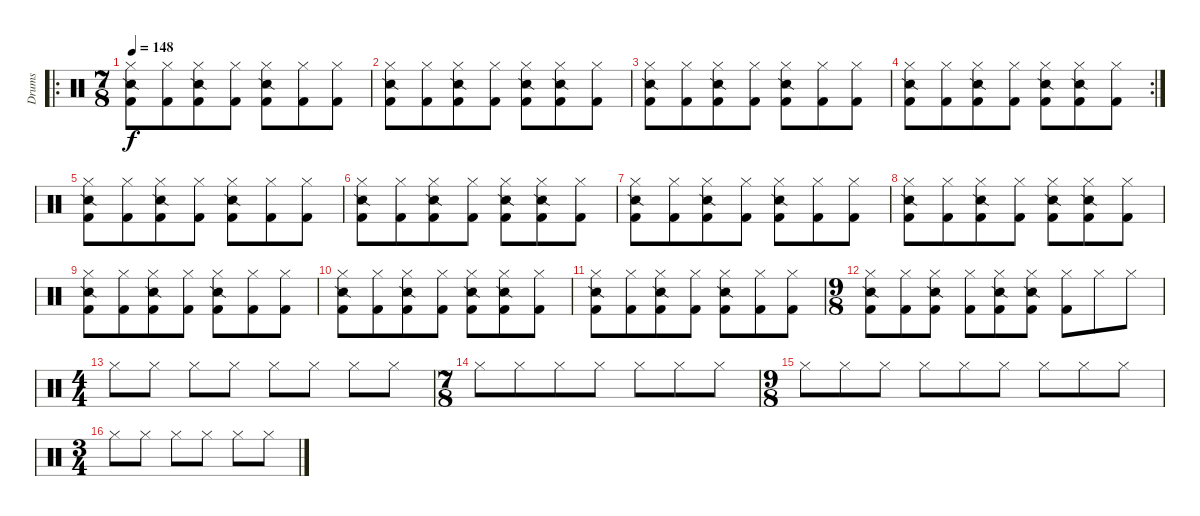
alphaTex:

\track ("Drums" "Drums") {instrument percussion}
\staff {score}
\articulation defaults
\ro
\ts (7 8)
\tempo 148
\clef neutral
\ks c
("Hi-Hat (closed)" "Snare (side stick) 2" "Kick (hit) 2").8{dy f} ("Hi-Hat (closed)" "Kick (hit) 2").8 ("Hi-Hat (closed)" "Snare (side stick) 2" "Kick (hit) 2").8 ("Hi-Hat (closed)" "Kick (hit) 2").8 ("Hi-Hat (closed)" "Snare (side stick) 2" "Kick (hit) 2").8 ("Hi-Hat (closed)" "Kick (hit) 2").8 ("Hi-Hat (closed)" "Kick (hit) 2").8 |
("Hi-Hat (closed)" "Snare (side stick) 2" "Kick (hit) 2").8 ("Hi-Hat (closed)" "Kick (hit) 2").8 ("Hi-Hat (closed)" "Snare (side stick) 2" "Kick (hit) 2").8 ("Hi-Hat (closed)" "Kick (hit) 2").8 ("Hi-Hat (closed)" "Snare (side stick) 2" "Kick (hit) 2").8 ("Hi-Hat (closed)" "Snare (side stick) 2" "Kick (hit) 2").8 ("Hi-Hat (closed)" "Kick (hit) 2").8 |
("Hi-Hat (closed)" "Snare (side stick) 2" "Kick (hit) 2").8 ("Hi-Hat (closed)" "Kick (hit) 2").8 ("Hi-Hat (closed)" "Snare (side stick) 2" "Kick (hit) 2").8 ("Hi-Hat (closed)" "Kick (hit) 2").8 ("Hi-Hat (closed)" "Snare (side stick) 2" "Kick (hit) 2").8 ("Hi-Hat (closed)" "Kick (hit) 2").8 ("Hi-Hat (closed)" "Kick (hit) 2").8 |
\rc 2
("Hi-Hat (closed)" "Snare (side stick) 2" "Kick (hit) 2").8 ("Hi-Hat (closed)" "Kick (hit) 2").8 ("Hi-Hat (closed)" "Snare (side stick) 2" "Kick (hit) 2").8 ("Hi-Hat (closed)" "Kick (hit) 2").8 ("Hi-Hat (closed)" "Snare (side stick) 2" "Kick (hit) 2").8 ("Hi-Hat (closed)" "Snare (side stick) 2" "Kick (hit) 2").8 ("Hi-Hat (closed)" "Kick (hit) 2").8 |
("Hi-Hat (closed)" "Snare (side stick) 2" "Kick (hit) 2").8 ("Hi-Hat (closed)" "Kick (hit) 2").8 ("Hi-Hat (closed)" "Snare (side stick) 2" "Kick (hit) 2").8 ("Hi-Hat (closed)" "Kick (hit) 2").8 ("Hi-Hat (closed)" "Snare (side stick) 2" "Kick (hit) 2").8 ("Hi-Hat (closed)" "Kick (hit) 2").8 ("Hi-Hat (closed)" "Kick (hit) 2").8 |
("Hi-Hat (closed)" "Snare (side stick) 2" "Kick (hit) 2").8 ("Hi-Hat (closed)" "Kick (hit) 2").8 ("Hi-Hat (closed)" "Snare (side stick) 2" "Kick (hit) 2").8 ("Hi-Hat (closed)" "Kick (hit) 2").8 ("Hi-Hat (closed)" "Snare (side stick) 2" "Kick (hit) 2").8 ("Hi-Hat (closed)" "Snare (side stick) 2" "Kick (hit) 2").8 ("Hi-Hat (closed)" "Kick (hit) 2").8 |
("Hi-Hat (closed)" "Snare (side stick) 2" "Kick (hit) 2").8 ("Hi-Hat (closed)" "Kick (hit) 2").8 ("Hi-Hat (closed)" "Snare (side stick) 2" "Kick (hit) 2").8 ("Hi-Hat (closed)" "Kick (hit) 2").8 ("Hi-Hat (closed)" "Snare (side stick) 2" "Kick (hit) 2").8 ("Hi-Hat (closed)" "Kick (hit) 2").8 ("Hi-Hat (closed)" "Kick (hit) 2").8 |
("Hi-Hat (closed)" "Snare (side stick) 2" "Kick (hit) 2").8 ("Hi-Hat (closed)" "Kick (hit) 2").8 ("Hi-Hat (closed)" "Snare (side stick) 2" "Kick (hit) 2").8 ("Hi-Hat (closed)" "Kick (hit) 2").8 ("Hi-Hat (closed)" "Snare (side stick) 2" "Kick (hit) 2").8 ("Hi-Hat (closed)" "Snare (side stick) 2" "Kick (hit) 2").8 ("Hi-Hat (closed)" "Kick (hit) 2").8 |
("Hi-Hat (closed)" "Snare (side stick) 2" "Kick (hit) 2").8 ("Hi-Hat (closed)" "Kick (hit) 2").8 ("Hi-Hat (closed)" "Snare (side stick) 2" "Kick (hit) 2").8 ("Hi-Hat (closed)" "Kick (hit) 2").8 ("Hi-Hat (closed)" "Snare (side stick) 2" "Kick (hit) 2").8 ("Hi-Hat (closed)" "Kick (hit) 2").8 ("Hi-Hat (closed)" "Kick (hit) 2").8 |
("Hi-Hat (closed)" "Snare (side stick) 2" "Kick (hit) 2").8 ("Hi-Hat (closed)" "Kick (hit) 2").8 ("Hi-Hat (closed)" "Snare (side stick) 2" "Kick (hit) 2").8 ("Hi-Hat (closed)" "Kick (hit) 2").8 ("Hi-Hat (closed)" "Snare (side stick) 2" "Kick (hit) 2").8 ("Hi-Hat (closed)" "Snare (side stick) 2" "Kick (hit) 2").8 ("Hi-Hat (closed)" "Kick (hit) 2").8 |
("Hi-Hat (closed)" "Snare (side stick) 2" "Kick (hit) 2").8 ("Hi-Hat (closed)" "Kick (hit) 2").8 ("Hi-Hat (closed)" "Snare (side stick) 2" "Kick (hit) 2").8 ("Hi-Hat (closed)" "Kick (hit) 2").8 ("Hi-Hat (closed)" "Snare (side stick) 2" "Kick (hit) 2").8 ("Hi-Hat (closed)" "Kick (hit) 2").8 ("Hi-Hat (closed)" "Kick (hit) 2").8 |
\ts (9 8)
("Hi-Hat (closed)" "Snare (side stick) 2" "Kick (hit) 2").8 ("Hi-Hat (closed)" "Kick (hit) 2").8 ("Hi-Hat (closed)" "Snare (side stick) 2" "Kick (hit) 2").8 ("Hi-Hat (closed)" "Kick (hit) 2").8 ("Hi-Hat (closed)" "Snare (side stick) 2" "Kick (hit) 2").8 ("Hi-Hat (closed)" "Snare (side stick) 2" "Kick (hit) 2").8 ("Hi-Hat (closed)" "Kick (hit) 2").8 "Hi-Hat (closed)".8 "Hi-Hat (closed)".8 |
\ts (4 4)
"Hi-Hat (closed)".8 "Hi-Hat (closed)".8 "Hi-Hat (closed)".8 "Hi-Hat (closed)".8 "Hi-Hat (closed)".8 "Hi-Hat (closed)".8 "Hi-Hat (closed)".8 "Hi-Hat (closed)".8 |
\ts (7 8)
"Hi-Hat (closed)".8 "Hi-Hat (closed)".8 "Hi-Hat (closed)".8 "Hi-Hat (closed)".8 "Hi-Hat (closed)".8 "Hi-Hat (closed)".8 "Hi-Hat (closed)".8 |
\ts (9 8)
"Hi-Hat (closed)".8 "Hi-Hat (closed)".8 "Hi-Hat (closed)".8 "Hi-Hat (closed)".8 "Hi-Hat (closed)".8 "Hi-Hat (closed)".8 "Hi-Hat (closed)".8 "Hi-Hat (closed)".8 "Hi-Hat (closed)".8 |
\ts (3 4)
"Hi-Hat (closed)".8 "Hi-Hat (closed)".8 "Hi-Hat (closed)".8 "Hi-Hat (closed)".8 "Hi-Hat (closed)".8 "Hi-Hat (closed)".8
